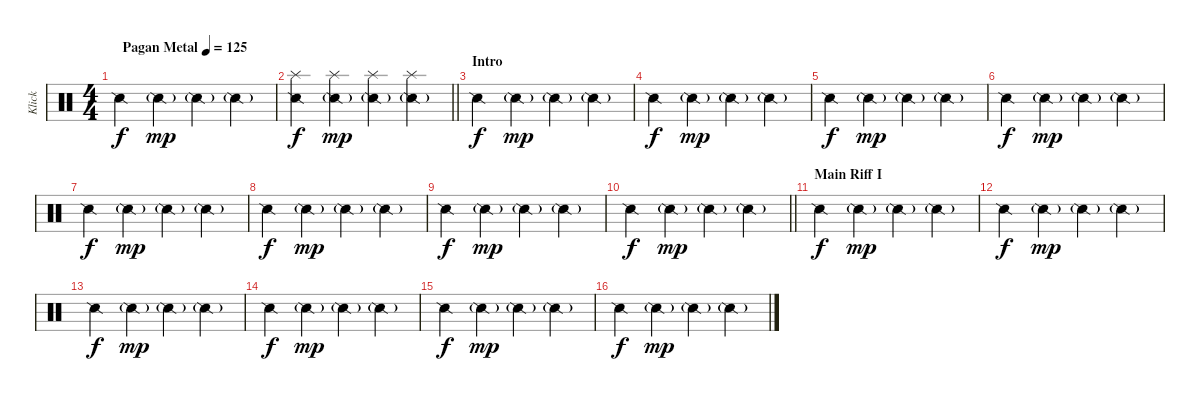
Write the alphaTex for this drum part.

\track ("Klick" "Klick") {instrument percussion}
\staff {score}
\articulation defaults
\ts (4 4)
\tempo (125 "Pagan Metal")
\clef neutral
\ks c "Snare (side stick) 2".4{dy f} "Snare (side stick) 2"{g}.4{dy mp} "Snare (side stick) 2"{g}.4 "Snare (side stick) 2"{g}.4
|
\barLineRight lightlight
("Splash (hit)" "Snare (side stick) 2").4{dy f} ("Splash (hit)" "Snare (side stick) 2"{g}).4{dy mp} ("Splash (hit)" "Snare (side stick) 2"{g}).4 ("Splash (hit)" "Snare (side stick) 2"{g}).4 |
\section ("" "Intro")
"Snare (side stick) 2".4{dy f} "Snare (side stick) 2"{g}.4{dy mp} "Snare (side stick) 2"{g}.4 "Snare (side stick) 2"{g}.4 |
"Snare (side stick) 2".4{dy f} "Snare (side stick) 2"{g}.4{dy mp} "Snare (side stick) 2"{g}.4 "Snare (side stick) 2"{g}.4 |
"Snare (side stick) 2".4{dy f} "Snare (side stick) 2"{g}.4{dy mp} "Snare (side stick) 2"{g}.4 "Snare (side stick) 2"{g}.4 |
"Snare (side stick) 2".4{dy f} "Snare (side stick) 2"{g}.4{dy mp} "Snare (side stick) 2"{g}.4 "Snare (side stick) 2"{g}.4 |
"Snare (side stick) 2".4{dy f} "Snare (side stick) 2"{g}.4{dy mp} "Snare (side stick) 2"{g}.4 "Snare (side stick) 2"{g}.4 |
"Snare (side stick) 2".4{dy f} "Snare (side stick) 2"{g}.4{dy mp} "Snare (side stick) 2"{g}.4 "Snare (side stick) 2"{g}.4 |
"Snare (side stick) 2".4{dy f} "Snare (side stick) 2"{g}.4{dy mp} "Snare (side stick) 2"{g}.4 "Snare (side stick) 2"{g}.4 |
\barLineRight lightlight "Snare (side stick) 2".4{dy f} "Snare (side stick) 2"{g}.4{dy mp} "Snare (side stick) 2"{g}.4 "Snare (side stick) 2"{g}.4
|
\section ("" "Main Riff I")
"Snare (side stick) 2".4{dy f} "Snare (side stick) 2"{g}.4{dy mp} "Snare (side stick) 2"{g}.4 "Snare (side stick) 2"{g}.4 |
"Snare (side stick) 2".4{dy f} "Snare (side stick) 2"{g}.4{dy mp} "Snare (side stick) 2"{g}.4 "Snare (side stick) 2"{g}.4 |
"Snare (side stick) 2".4{dy f} "Snare (side stick) 2"{g}.4{dy mp} "Snare (side stick) 2"{g}.4 "Snare (side stick) 2"{g}.4 |
"Snare (side stick) 2".4{dy f} "Snare (side stick) 2"{g}.4{dy mp} "Snare (side stick) 2"{g}.4 "Snare (side stick) 2"{g}.4 |
"Snare (side stick) 2".4{dy f} "Snare (side stick) 2"{g}.4{dy mp} "Snare (side stick) 2"{g}.4 "Snare (side stick) 2"{g}.4 |
"Snare (side stick) 2".4{dy f} "Snare (side stick) 2"{g}.4{dy mp} "Snare (side stick) 2"{g}.4 "Snare (side stick) 2"{g}.4
